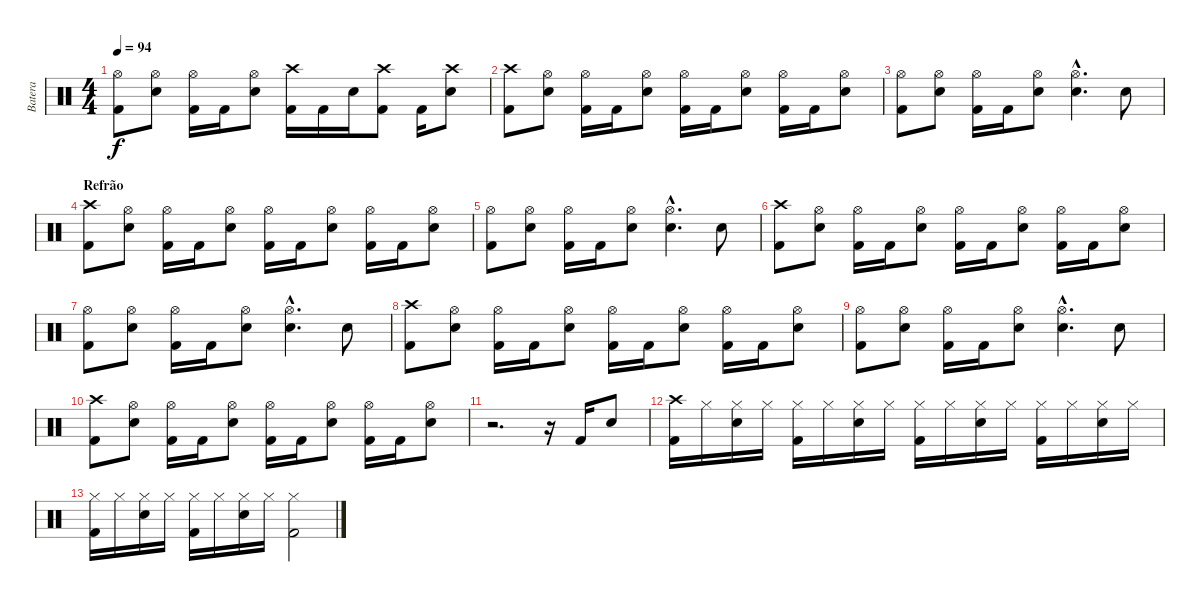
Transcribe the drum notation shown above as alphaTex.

\track ("Batera" "Batera") {instrument percussion}
\staff {score}
\articulation defaults
\ts (4 4)
\tempo 94
\clef neutral
\ks c
("Hi-Hat (open)" "Kick (hit) 2").8{dy f} ("Hi-Hat (open)" "Snare (hit) 2").8 ("Hi-Hat (open)" "Kick (hit) 2").16 "Kick (hit) 2".16 ("Hi-Hat (open)" "Snare (hit) 2").8 ("Crash high (hit)" "Kick (hit) 2").16 "Kick (hit) 2".16 "Snare (hit) 2".16 ("Crash high (hit)" "Kick (hit) 2").8 "Kick (hit) 2".16 ("Crash high (hit)" "Snare (hit) 2").8 |
("Crash high (hit)" "Kick (hit) 2").8 ("Hi-Hat (open)" "Snare (hit) 2").8 ("Hi-Hat (open)" "Kick (hit) 2").16 "Kick (hit) 2".16 ("Hi-Hat (open)" "Snare (hit) 2").8 ("Hi-Hat (open)" "Kick (hit) 2").16 "Kick (hit) 2".16 ("Hi-Hat (open)" "Snare (hit) 2").8 ("Hi-Hat (open)" "Kick (hit) 2").16 "Kick (hit) 2".16 ("Hi-Hat (open)" "Snare (hit) 2").8 |
("Hi-Hat (open)" "Kick (hit) 2").8 ("Hi-Hat (open)" "Snare (hit) 2").8 ("Hi-Hat (open)" "Kick (hit) 2").16 "Kick (hit) 2".16 ("Hi-Hat (open)" "Snare (hit) 2").8 ("Hi-Hat (open)"{hac} "Snare (hit) 2"{hac}).4{d} "Snare (hit) 2".8 |
\section ("" "Refrão")
("Crash high (hit)" "Kick (hit) 2").8 ("Hi-Hat (open)" "Snare (hit) 2").8 ("Hi-Hat (open)" "Kick (hit) 2").16 "Kick (hit) 2".16 ("Hi-Hat (open)" "Snare (hit) 2").8 ("Hi-Hat (open)" "Kick (hit) 2").16 "Kick (hit) 2".16 ("Hi-Hat (open)" "Snare (hit) 2").8 ("Hi-Hat (open)" "Kick (hit) 2").16 "Kick (hit) 2".16 ("Hi-Hat (open)" "Snare (hit) 2").8 |
("Hi-Hat (open)" "Kick (hit) 2").8 ("Hi-Hat (open)" "Snare (hit) 2").8 ("Hi-Hat (open)" "Kick (hit) 2").16 "Kick (hit) 2".16 ("Hi-Hat (open)" "Snare (hit) 2").8 ("Hi-Hat (open)"{hac} "Snare (hit) 2"{hac}).4{d} "Snare (hit) 2".8 |
("Crash high (hit)" "Kick (hit) 2").8 ("Hi-Hat (open)" "Snare (hit) 2").8 ("Hi-Hat (open)" "Kick (hit) 2").16 "Kick (hit) 2".16 ("Hi-Hat (open)" "Snare (hit) 2").8 ("Hi-Hat (open)" "Kick (hit) 2").16 "Kick (hit) 2".16 ("Hi-Hat (open)" "Snare (hit) 2").8 ("Hi-Hat (open)" "Kick (hit) 2").16 "Kick (hit) 2".16 ("Hi-Hat (open)" "Snare (hit) 2").8 |
("Hi-Hat (open)" "Kick (hit) 2").8 ("Hi-Hat (open)" "Snare (hit) 2").8 ("Hi-Hat (open)" "Kick (hit) 2").16 "Kick (hit) 2".16 ("Hi-Hat (open)" "Snare (hit) 2").8 ("Hi-Hat (open)"{hac} "Snare (hit) 2"{hac}).4{d} "Snare (hit) 2".8 |
("Crash high (hit)" "Kick (hit) 2").8 ("Hi-Hat (open)" "Snare (hit) 2").8 ("Hi-Hat (open)" "Kick (hit) 2").16 "Kick (hit) 2".16 ("Hi-Hat (open)" "Snare (hit) 2").8 ("Hi-Hat (open)" "Kick (hit) 2").16 "Kick (hit) 2".16 ("Hi-Hat (open)" "Snare (hit) 2").8 ("Hi-Hat (open)" "Kick (hit) 2").16 "Kick (hit) 2".16 ("Hi-Hat (open)" "Snare (hit) 2").8 |
("Hi-Hat (open)" "Kick (hit) 2").8 ("Hi-Hat (open)" "Snare (hit) 2").8 ("Hi-Hat (open)" "Kick (hit) 2").16 "Kick (hit) 2".16 ("Hi-Hat (open)" "Snare (hit) 2").8 ("Hi-Hat (open)"{hac} "Snare (hit) 2"{hac}).4{d} "Snare (hit) 2".8 |
("Crash high (hit)" "Kick (hit) 2").8 ("Hi-Hat (open)" "Snare (hit) 2").8 ("Hi-Hat (open)" "Kick (hit) 2").16 "Kick (hit) 2".16 ("Hi-Hat (open)" "Snare (hit) 2").8 ("Hi-Hat (open)" "Kick (hit) 2").16 "Kick (hit) 2".16 ("Hi-Hat (open)" "Snare (hit) 2").8 ("Hi-Hat (open)" "Kick (hit) 2").16 "Kick (hit) 2".16 ("Hi-Hat (open)" "Snare (hit) 2").8 |
r.2{d} r.16 "Kick (hit) 2".16 "Snare (hit) 2".8 |
("Crash high (hit)" "Kick (hit) 2").16 "Hi-Hat (closed)".16 ("Hi-Hat (closed)" "Snare (hit) 2").16 "Hi-Hat (closed)".16 ("Hi-Hat (closed)" "Kick (hit) 2").16 "Hi-Hat (closed)".16 ("Hi-Hat (closed)" "Snare (hit) 2").16 "Hi-Hat (closed)".16 ("Hi-Hat (closed)" "Kick (hit) 2").16 "Hi-Hat (closed)".16 ("Hi-Hat (closed)" "Snare (hit) 2").16 "Hi-Hat (closed)".16 ("Hi-Hat (closed)" "Kick (hit) 2").16 "Hi-Hat (closed)".16 ("Hi-Hat (closed)" "Snare (hit) 2").16 "Hi-Hat (closed)".16 |
("Hi-Hat (closed)" "Kick (hit) 2").16 "Hi-Hat (closed)".16 ("Hi-Hat (closed)" "Snare (hit) 2").16 "Hi-Hat (closed)".16 ("Hi-Hat (closed)" "Kick (hit) 2").16 "Hi-Hat (closed)".16 ("Hi-Hat (closed)" "Snare (hit) 2").16 "Hi-Hat (closed)".16 ("Hi-Hat (closed)" "Kick (hit) 2").2
